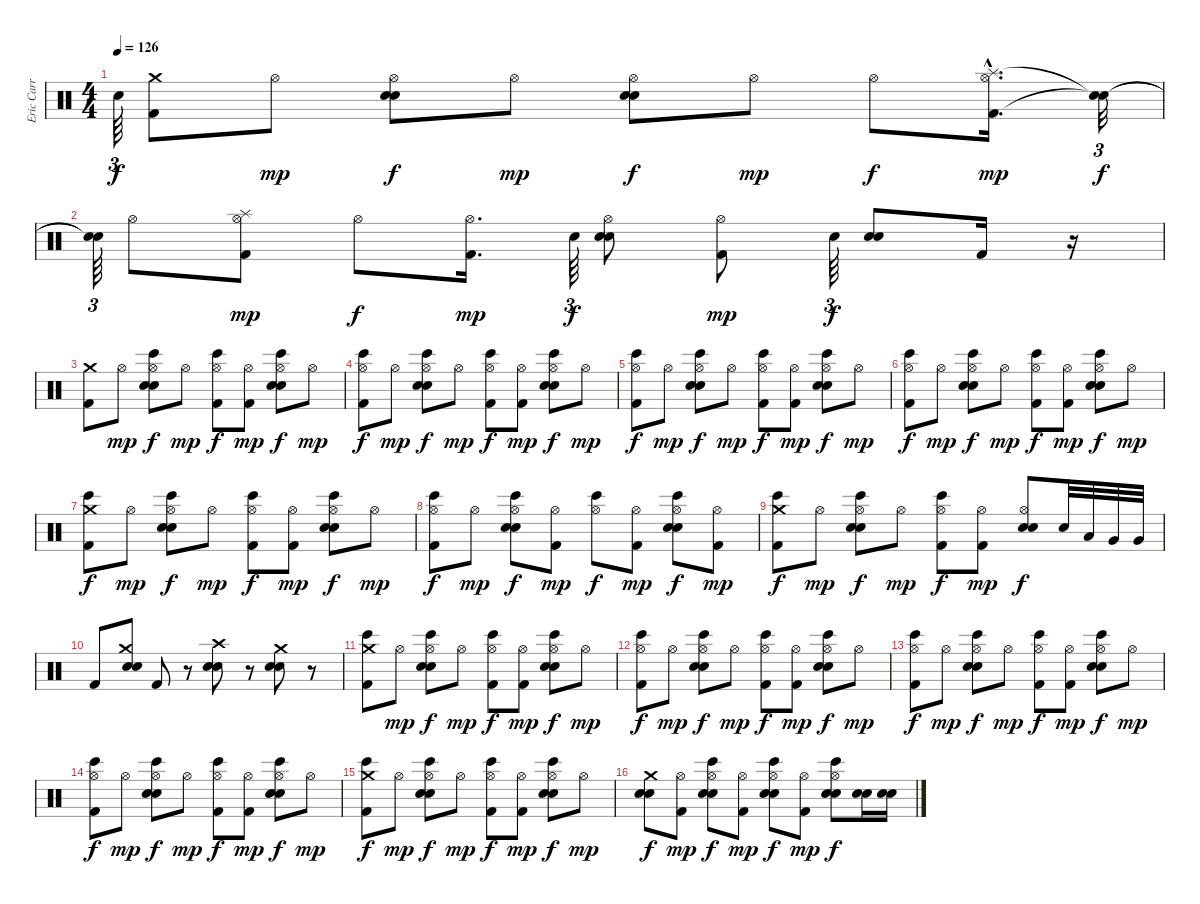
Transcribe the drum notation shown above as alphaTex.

\track ("Eric Carr" "Eric Carr") {instrument percussion}
\staff {score}
\articulation defaults
\ts (4 4)
\tempo 126
\clef neutral
\ks c "Snare (hit)"{t}.64{tu (3 2) dy f}
("Crash medium (hit)" "Kick (hit) 2").8 "Hi-Hat (open)".8{dy mp} ("Hi-Hat (open)" "Snare (hit) 2" "Electric Snare (hit)").8{dy f} "Hi-Hat (open)".8{dy mp} ("Electric Snare (hit)" "Snare (hit) 2" "Hi-Hat (open)").8{dy f} "Hi-Hat (open)".8{dy mp} "Hi-Hat (open)".8{dy f} ("Splash (hit)" "Kick (hit) 2"{hac} "Hi-Hat (open)"{hac}).16{d dy mp} ("Snare (hit)"{t} "Snare (hit)"{t}).32{tu (3 2) dy f} |
("Snare (hit)"{t} "Snare (hit)"{t}).64{tu (3 2)} "Hi-Hat (open)".8 ("Splash (hit)" "Kick (hit) 2" "Hi-Hat (open)").8{dy mp} "Hi-Hat (open)".8{dy f} ("Kick (hit) 2" "Hi-Hat (open)").16{d dy mp} "Snare (hit) 2".64{tu (3 2) dy f} ("Snare (hit) 2" "Electric Snare (hit)" "Hi-Hat (open)").8 ("Kick (hit) 2" "Hi-Hat (open)").8{dy mp} "Snare (hit) 2".64{tu (3 2) dy f} ("Electric Snare (hit)" "Snare (hit) 2").8 "Kick (hit) 2".16 r.16 |
("Crash medium (hit)" "Kick (hit) 2").8 "Hi-Hat (open)".8{dy mp} ("Bongo High (hit)" "Hi-Hat (open)" "Snare (hit) 2" "Electric Snare (hit)").8{dy f} "Hi-Hat (open)".8{dy mp} ("Bongo High (hit)" "Kick (hit) 2" "Hi-Hat (open)").8{dy f} ("Kick (hit) 2" "Hi-Hat (open)").8{dy mp} ("Bongo High (hit)" "Electric Snare (hit)" "Snare (hit) 2" "Hi-Hat (open)").8{dy f} "Hi-Hat (open)".8{dy mp} |
("Bongo High (hit)" "Kick (hit) 2" "Hi-Hat (open)").8{dy f} "Hi-Hat (open)".8{dy mp} ("Bongo High (hit)" "Hi-Hat (open)" "Snare (hit) 2" "Electric Snare (hit)").8{dy f} "Hi-Hat (open)".8{dy mp} ("Bongo High (hit)" "Kick (hit) 2" "Hi-Hat (open)").8{dy f} ("Kick (hit) 2" "Hi-Hat (open)").8{dy mp} ("Bongo High (hit)" "Electric Snare (hit)" "Snare (hit) 2" "Hi-Hat (open)").8{dy f} "Hi-Hat (open)".8{dy mp} |
("Bongo High (hit)" "Hi-Hat (open)" "Kick (hit) 2").8{dy f} "Hi-Hat (open)".8{dy mp} ("Bongo High (hit)" "Hi-Hat (open)" "Snare (hit) 2" "Electric Snare (hit)").8{dy f} "Hi-Hat (open)".8{dy mp} ("Bongo High (hit)" "Kick (hit) 2" "Hi-Hat (open)").8{dy f} ("Kick (hit) 2" "Hi-Hat (open)").8{dy mp} ("Bongo High (hit)" "Electric Snare (hit)" "Snare (hit) 2" "Hi-Hat (open)").8{dy f} "Hi-Hat (open)".8{dy mp} |
("Bongo High (hit)" "Kick (hit) 2" "Hi-Hat (open)").8{dy f} "Hi-Hat (open)".8{dy mp} ("Bongo High (hit)" "Hi-Hat (open)" "Snare (hit) 2" "Electric Snare (hit)").8{dy f} "Hi-Hat (open)".8{dy mp} ("Bongo High (hit)" "Kick (hit) 2" "Hi-Hat (open)").8{dy f} ("Kick (hit) 2" "Hi-Hat (open)").8{dy mp} ("Bongo High (hit)" "Electric Snare (hit)" "Snare (hit) 2" "Hi-Hat (open)").8{dy f} "Hi-Hat (open)".8{dy mp} |
("Bongo High (hit)" "Crash medium (hit)" "Kick (hit) 2").8{dy f} "Hi-Hat (open)".8{dy mp} ("Bongo High (hit)" "Hi-Hat (open)" "Snare (hit) 2" "Electric Snare (hit)").8{dy f} "Hi-Hat (open)".8{dy mp} ("Bongo High (hit)" "Kick (hit) 2" "Hi-Hat (open)").8{dy f} ("Kick (hit) 2" "Hi-Hat (open)").8{dy mp} ("Bongo High (hit)" "Electric Snare (hit)" "Snare (hit) 2" "Hi-Hat (open)").8{dy f} "Hi-Hat (open)".8{dy mp} |
("Bongo High (hit)" "Kick (hit) 2" "Hi-Hat (open)").8{dy f} "Hi-Hat (open)".8{dy mp} ("Bongo High (hit)" "Hi-Hat (open)" "Snare (hit) 2" "Electric Snare (hit)").8{dy f} ("Kick (hit) 2" "Hi-Hat (open)").8{dy mp} ("Bongo High (hit)" "Hi-Hat (open)").8{dy f} ("Kick (hit) 2" "Hi-Hat (open)").8{dy mp} ("Bongo High (hit)" "Electric Snare (hit)" "Snare (hit) 2" "Hi-Hat (open)").8{dy f} ("Kick (hit) 2" "Hi-Hat (open)").8{dy mp} |
("Bongo High (hit)" "Crash medium (hit)" "Kick (hit) 2").8{dy f} "Hi-Hat (open)".8{dy mp} ("Bongo High (hit)" "Hi-Hat (open)" "Snare (hit) 2" "Electric Snare (hit)").8{dy f} "Hi-Hat (open)".8{dy mp} ("Bongo High (hit)" "Kick (hit) 2" "Hi-Hat (open)").8{dy f} ("Kick (hit) 2" "Hi-Hat (open)").8{dy mp} ("Electric Snare (hit)" "Snare (hit) 2" "Hi-Hat (open)").8{dy f} "Electric Snare (hit)".32 "Low Tom (hit)".32 "Very Low Tom (hit)".32 "Very Low Tom (hit)".32 |
"Kick (hit) 2".8 ("Crash medium (hit)" "Snare (hit) 2" "Electric Snare (hit)").8 "Kick (hit) 2".8 r.8 ("Crash high (hit)" "Electric Snare (hit)" "Snare (hit) 2").8 r.8 ("Crash medium (hit)" "Snare (hit) 2" "Electric Snare (hit)").8 r.8 |
("Bongo High (hit)" "Crash medium (hit)" "Kick (hit) 2").8 "Hi-Hat (open)".8{dy mp} ("Bongo High (hit)" "Hi-Hat (open)" "Snare (hit) 2" "Electric Snare (hit)").8{dy f} "Hi-Hat (open)".8{dy mp} ("Bongo High (hit)" "Kick (hit) 2" "Hi-Hat (open)").8{dy f} ("Kick (hit) 2" "Hi-Hat (open)").8{dy mp} ("Bongo High (hit)" "Electric Snare (hit)" "Snare (hit) 2" "Hi-Hat (open)").8{dy f} "Hi-Hat (open)".8{dy mp} |
("Bongo High (hit)" "Kick (hit) 2" "Hi-Hat (open)").8{dy f} "Hi-Hat (open)".8{dy mp} ("Bongo High (hit)" "Hi-Hat (open)" "Snare (hit) 2" "Electric Snare (hit)").8{dy f} "Hi-Hat (open)".8{dy mp} ("Bongo High (hit)" "Kick (hit) 2" "Hi-Hat (open)").8{dy f} ("Kick (hit) 2" "Hi-Hat (open)").8{dy mp} ("Bongo High (hit)" "Electric Snare (hit)" "Snare (hit) 2" "Hi-Hat (open)").8{dy f} "Hi-Hat (open)".8{dy mp} |
("Bongo High (hit)" "Hi-Hat (open)" "Kick (hit) 2").8{dy f} "Hi-Hat (open)".8{dy mp} ("Bongo High (hit)" "Hi-Hat (open)" "Snare (hit) 2" "Electric Snare (hit)").8{dy f} "Hi-Hat (open)".8{dy mp} ("Bongo High (hit)" "Kick (hit) 2" "Hi-Hat (open)").8{dy f} ("Kick (hit) 2" "Hi-Hat (open)").8{dy mp} ("Bongo High (hit)" "Electric Snare (hit)" "Snare (hit) 2" "Hi-Hat (open)").8{dy f} "Hi-Hat (open)".8{dy mp} |
("Bongo High (hit)" "Kick (hit) 2" "Hi-Hat (open)").8{dy f} "Hi-Hat (open)".8{dy mp} ("Bongo High (hit)" "Hi-Hat (open)" "Snare (hit) 2" "Electric Snare (hit)").8{dy f} "Hi-Hat (open)".8{dy mp} ("Bongo High (hit)" "Kick (hit) 2" "Hi-Hat (open)").8{dy f} ("Kick (hit) 2" "Hi-Hat (open)").8{dy mp} ("Bongo High (hit)" "Electric Snare (hit)" "Snare (hit) 2" "Hi-Hat (open)").8{dy f} "Hi-Hat (open)".8{dy mp} |
("Bongo High (hit)" "Crash medium (hit)" "Kick (hit) 2").8{dy f} "Hi-Hat (open)".8{dy mp} ("Bongo High (hit)" "Hi-Hat (open)" "Snare (hit) 2" "Electric Snare (hit)").8{dy f} "Hi-Hat (open)".8{dy mp} ("Bongo High (hit)" "Kick (hit) 2" "Hi-Hat (open)").8{dy f} ("Kick (hit) 2" "Hi-Hat (open)").8{dy mp} ("Bongo High (hit)" "Electric Snare (hit)" "Snare (hit) 2" "Hi-Hat (open)").8{dy f} "Hi-Hat (open)".8{dy mp} |
("Crash medium (hit)" "Snare (hit) 2" "Electric Snare (hit)").8{dy f} ("Kick (hit) 2" "Hi-Hat (open)").8{dy mp} ("Bongo High (hit)" "Hi-Hat (open)" "Snare (hit) 2" "Electric Snare (hit)").8{dy f} ("Kick (hit) 2" "Hi-Hat (open)").8{dy mp} ("Bongo High (hit)" "Electric Snare (hit)" "Snare (hit) 2" "Hi-Hat (open)").8{dy f} ("Kick (hit) 2" "Hi-Hat (open)").8{dy mp} ("Hi-Hat (open)" "Bongo High (hit)" "Electric Snare (hit)" "Snare (hit) 2").8{dy f} ("Electric Snare (hit)" "Snare (hit) 2").16 ("Electric Snare (hit)" "Snare (hit) 2").16
